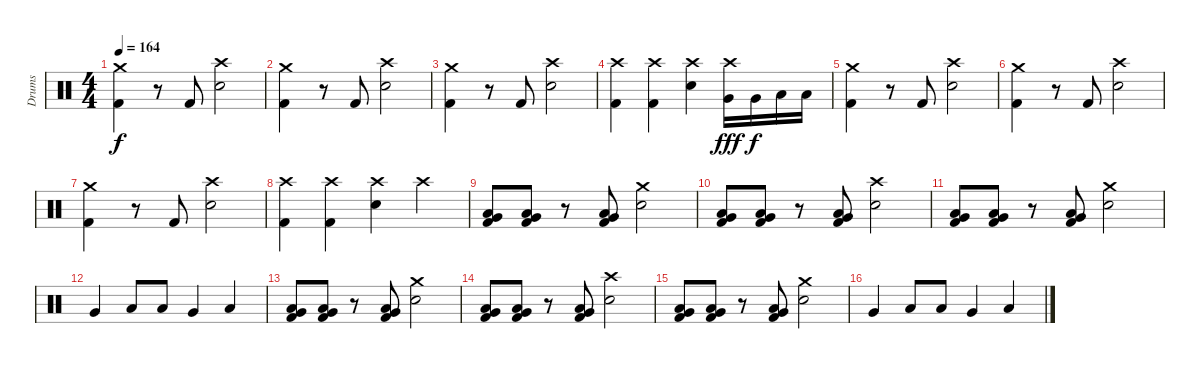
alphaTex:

\track ("Drums" "Drums") {instrument percussion}
\staff {score}
\articulation defaults
\ts (4 4)
\tempo 164
\clef neutral
\ks c
("Crash medium (hit)" "Kick (hit) 2").4{dy f} r.8 "Kick (hit) 2".8 ("Crash high (hit)" "Electric Snare (hit)").2 |
("Crash medium (hit)" "Kick (hit) 2").4 r.8 "Kick (hit) 2".8 ("Crash high (hit)" "Electric Snare (hit)").2 |
("Crash medium (hit)" "Kick (hit) 2").4 r.8 "Kick (hit) 2".8 ("Crash high (hit)" "Electric Snare (hit)").2 |
("Crash high (hit)" "Kick (hit) 2").4 ("Crash high (hit)" "Kick (hit) 2").4 ("Crash high (hit)" "Electric Snare (hit)").4 ("Crash high (hit)" "Very Low Tom (hit)").16{dy fff} "Very Low Tom (hit)".16{dy f} "Low Floor Tom (hit)".16 "Low Floor Tom (hit)".16 |
("Crash medium (hit)" "Kick (hit) 2").4 r.8 "Kick (hit) 2".8 ("Crash high (hit)" "Electric Snare (hit)").2 |
("Crash medium (hit)" "Kick (hit) 2").4 r.8 "Kick (hit) 2".8 ("Crash high (hit)" "Electric Snare (hit)").2 |
("Crash medium (hit)" "Kick (hit) 2").4 r.8 "Kick (hit) 2".8 ("Crash high (hit)" "Electric Snare (hit)").2 |
("Crash high (hit)" "Kick (hit) 2").4 ("Crash high (hit)" "Kick (hit) 2").4 ("Crash high (hit)" "Electric Snare (hit)").4 "Crash high (hit)".4 |
("Very Low Tom (hit)" "Low Floor Tom (hit)" "Kick (hit) 2").8 ("Very Low Tom (hit)" "Low Floor Tom (hit)" "Kick (hit) 2").8 r.8 ("Very Low Tom (hit)" "Low Floor Tom (hit)" "Kick (hit) 2").8 ("Crash medium (hit)" "Electric Snare (hit)").2 |
("Very Low Tom (hit)" "Low Floor Tom (hit)" "Kick (hit) 2").8 ("Very Low Tom (hit)" "Low Floor Tom (hit)" "Kick (hit) 2").8 r.8 ("Very Low Tom (hit)" "Low Floor Tom (hit)" "Kick (hit) 2").8 ("Crash high (hit)" "Electric Snare (hit)").2 |
("Very Low Tom (hit)" "Low Floor Tom (hit)" "Kick (hit) 2").8 ("Very Low Tom (hit)" "Low Floor Tom (hit)" "Kick (hit) 2").8 r.8 ("Very Low Tom (hit)" "Low Floor Tom (hit)" "Kick (hit) 2").8 ("Crash medium (hit)" "Electric Snare (hit)").2 |
"Very Low Tom (hit)".4 "Low Floor Tom (hit)".8 "Low Floor Tom (hit)".8 "Very Low Tom (hit)".4 "Low Floor Tom (hit)".4 |
("Very Low Tom (hit)" "Low Floor Tom (hit)" "Kick (hit) 2").8 ("Very Low Tom (hit)" "Low Floor Tom (hit)" "Kick (hit) 2").8 r.8 ("Very Low Tom (hit)" "Low Floor Tom (hit)" "Kick (hit) 2").8 ("Crash medium (hit)" "Electric Snare (hit)").2 |
("Very Low Tom (hit)" "Low Floor Tom (hit)" "Kick (hit) 2").8 ("Very Low Tom (hit)" "Low Floor Tom (hit)" "Kick (hit) 2").8 r.8 ("Very Low Tom (hit)" "Low Floor Tom (hit)" "Kick (hit) 2").8 ("Crash high (hit)" "Electric Snare (hit)").2 |
("Very Low Tom (hit)" "Low Floor Tom (hit)" "Kick (hit) 2").8 ("Very Low Tom (hit)" "Low Floor Tom (hit)" "Kick (hit) 2").8 r.8 ("Very Low Tom (hit)" "Low Floor Tom (hit)" "Kick (hit) 2").8 ("Crash medium (hit)" "Electric Snare (hit)").2 |
"Very Low Tom (hit)".4 "Low Floor Tom (hit)".8 "Low Floor Tom (hit)".8 "Very Low Tom (hit)".4 "Low Floor Tom (hit)".4
